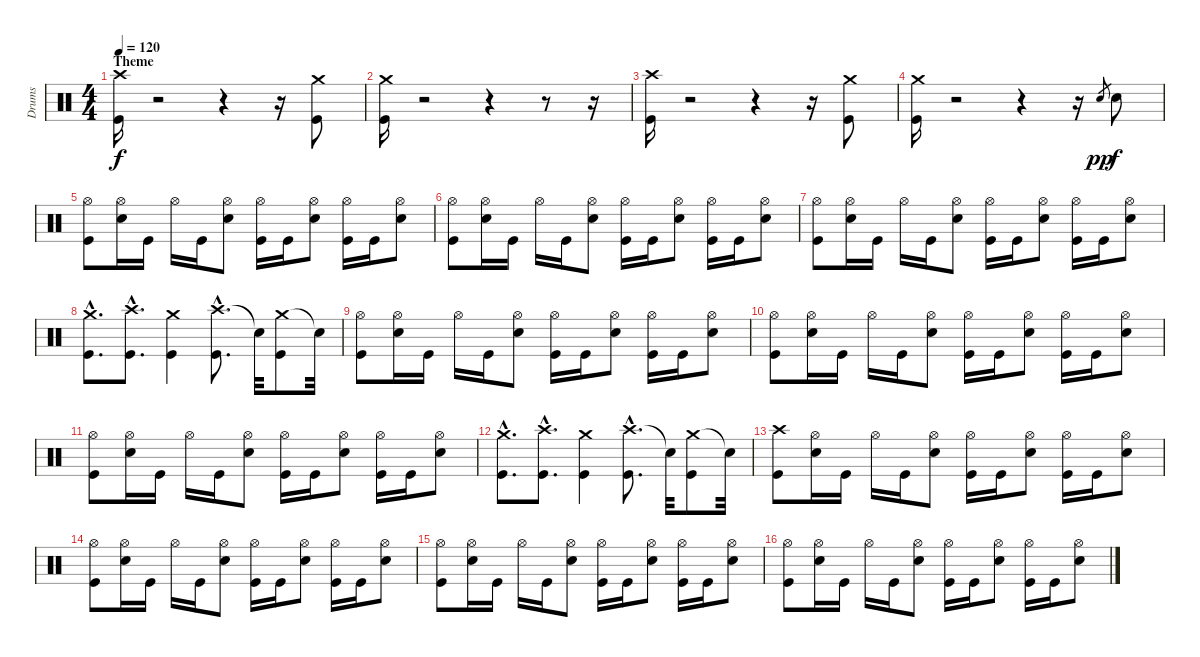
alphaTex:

\track ("Drums" "Drums") {instrument percussion}
\staff {score}
\articulation defaults
\ts (4 4)
\section ("" "Theme")
\tempo 120
\clef neutral
\ks c
("Crash high (hit)" "Kick (hit)").16{dy f volume 15} r.2 r.4 r.16 ("Crash medium (hit)" "Kick (hit)").8 |
("Crash medium (hit)" "Kick (hit)").16 r.2 r.4 r.8 r.16 |
("Crash high (hit)" "Kick (hit)").16 r.2 r.4 r.16 ("Crash medium (hit)" "Kick (hit)").8 |
("Crash medium (hit)" "Kick (hit)").16 r.2 r.4 r.16 "Snare (hit) 2".8{gr dy pp} "Snare (hit) 2".8{dy f} |
("Hi-Hat (open)" "Kick (hit)").8 ("Hi-Hat (open)" "Snare (hit) 2").16 "Kick (hit)".16 "Hi-Hat (open)".16 "Kick (hit)".16 ("Hi-Hat (open)" "Snare (hit) 2").8 ("Hi-Hat (open)" "Kick (hit)").16 "Kick (hit)".16 ("Hi-Hat (open)" "Snare (hit) 2").8 ("Hi-Hat (open)" "Kick (hit)").16 "Kick (hit)".16 ("Hi-Hat (open)" "Snare (hit) 2").8 |
("Hi-Hat (open)" "Kick (hit)").8 ("Hi-Hat (open)" "Snare (hit) 2").16 "Kick (hit)".16 "Hi-Hat (open)".16 "Kick (hit)".16 ("Hi-Hat (open)" "Snare (hit) 2").8 ("Hi-Hat (open)" "Kick (hit)").16 "Kick (hit)".16 ("Hi-Hat (open)" "Snare (hit) 2").8 ("Hi-Hat (open)" "Kick (hit)").16 "Kick (hit)".16 ("Hi-Hat (open)" "Snare (hit) 2").8 |
("Hi-Hat (open)" "Kick (hit)").8 ("Hi-Hat (open)" "Snare (hit) 2").16 "Kick (hit)".16 "Hi-Hat (open)".16 "Kick (hit)".16 ("Hi-Hat (open)" "Snare (hit) 2").8 ("Hi-Hat (open)" "Kick (hit)").16 "Kick (hit)".16 ("Hi-Hat (open)" "Snare (hit) 2").8 ("Hi-Hat (open)" "Kick (hit)").16 "Kick (hit)".16 ("Hi-Hat (open)" "Snare (hit) 2").8 |
("Crash medium (hit)"{hac} "Kick (hit)"{hac}).8{d} ("Crash high (hit)"{hac} "Kick (hit)"{hac}).8{d} ("Crash medium (hit)" "Kick (hit)").4 ("Crash high (hit)"{hac} "Kick (hit)"{hac}).8{d} "Snare (hit)"{t}.32 ("Crash medium (hit)" "Kick (hit)").8 "Snare (hit)"{t}.32 |
("Hi-Hat (open)" "Kick (hit)").8 ("Hi-Hat (open)" "Snare (hit) 2").16 "Kick (hit)".16 "Hi-Hat (open)".16 "Kick (hit)".16 ("Hi-Hat (open)" "Snare (hit) 2").8 ("Hi-Hat (open)" "Kick (hit)").16 "Kick (hit)".16 ("Hi-Hat (open)" "Snare (hit) 2").8 ("Hi-Hat (open)" "Kick (hit)").16 "Kick (hit)".16 ("Hi-Hat (open)" "Snare (hit) 2").8 |
("Hi-Hat (open)" "Kick (hit)").8 ("Hi-Hat (open)" "Snare (hit) 2").16 "Kick (hit)".16 "Hi-Hat (open)".16 "Kick (hit)".16 ("Hi-Hat (open)" "Snare (hit) 2").8 ("Hi-Hat (open)" "Kick (hit)").16 "Kick (hit)".16 ("Hi-Hat (open)" "Snare (hit) 2").8 ("Hi-Hat (open)" "Kick (hit)").16 "Kick (hit)".16 ("Hi-Hat (open)" "Snare (hit) 2").8 |
("Hi-Hat (open)" "Kick (hit)").8 ("Hi-Hat (open)" "Snare (hit) 2").16 "Kick (hit)".16 "Hi-Hat (open)".16 "Kick (hit)".16 ("Hi-Hat (open)" "Snare (hit) 2").8 ("Hi-Hat (open)" "Kick (hit)").16 "Kick (hit)".16 ("Hi-Hat (open)" "Snare (hit) 2").8 ("Hi-Hat (open)" "Kick (hit)").16 "Kick (hit)".16 ("Hi-Hat (open)" "Snare (hit) 2").8 |
("Crash medium (hit)"{hac} "Kick (hit)"{hac}).8{d} ("Crash high (hit)"{hac} "Kick (hit)"{hac}).8{d} ("Crash medium (hit)" "Kick (hit)").4 ("Crash high (hit)"{hac} "Kick (hit)"{hac}).8{d} "Snare (hit)"{t}.32 ("Crash medium (hit)" "Kick (hit)").8 "Snare (hit)"{t}.32 |
("Crash high (hit)" "Kick (hit)").8 ("Hi-Hat (open)" "Snare (hit) 2").16 "Kick (hit)".16 "Hi-Hat (open)".16 "Kick (hit)".16 ("Hi-Hat (open)" "Snare (hit) 2").8 ("Hi-Hat (open)" "Kick (hit)").16 "Kick (hit)".16 ("Hi-Hat (open)" "Snare (hit) 2").8 ("Hi-Hat (open)" "Kick (hit)").16 "Kick (hit)".16 ("Hi-Hat (open)" "Snare (hit) 2").8 |
("Hi-Hat (open)" "Kick (hit)").8 ("Hi-Hat (open)" "Snare (hit) 2").16 "Kick (hit)".16 "Hi-Hat (open)".16 "Kick (hit)".16 ("Hi-Hat (open)" "Snare (hit) 2").8 ("Hi-Hat (open)" "Kick (hit)").16 "Kick (hit)".16 ("Hi-Hat (open)" "Snare (hit) 2").8 ("Hi-Hat (open)" "Kick (hit)").16 "Kick (hit)".16 ("Hi-Hat (open)" "Snare (hit) 2").8 |
("Hi-Hat (open)" "Kick (hit)").8 ("Hi-Hat (open)" "Snare (hit) 2").16 "Kick (hit)".16 "Hi-Hat (open)".16 "Kick (hit)".16 ("Hi-Hat (open)" "Snare (hit) 2").8 ("Hi-Hat (open)" "Kick (hit)").16 "Kick (hit)".16 ("Hi-Hat (open)" "Snare (hit) 2").8 ("Hi-Hat (open)" "Kick (hit)").16 "Kick (hit)".16 ("Hi-Hat (open)" "Snare (hit) 2").8 |
("Hi-Hat (open)" "Kick (hit)").8 ("Hi-Hat (open)" "Snare (hit) 2").16 "Kick (hit)".16 "Hi-Hat (open)".16 "Kick (hit)".16 ("Hi-Hat (open)" "Snare (hit) 2").8 ("Hi-Hat (open)" "Kick (hit)").16 "Kick (hit)".16 ("Hi-Hat (open)" "Snare (hit) 2").8 ("Hi-Hat (open)" "Kick (hit)").16 "Kick (hit)".16 ("Hi-Hat (open)" "Snare (hit) 2").8
